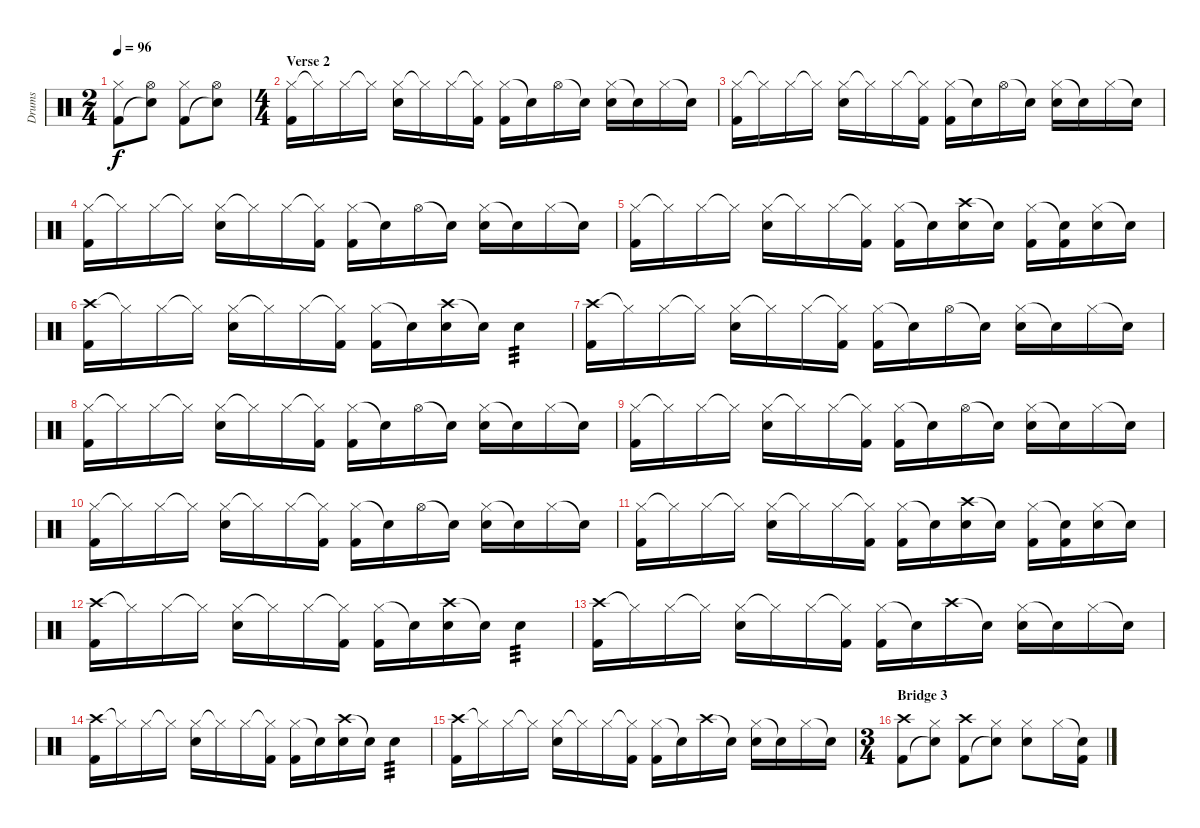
\track ("Drums" "Drums") {instrument percussion}
\staff {score}
\articulation defaults
\ts (2 4)
\tempo 96
\clef neutral
\ks c
("Hi-Hat (closed)" "Kick (hit) 2").8{dy f} ("Hi-Hat (open)" "Snare (hit)"{t}).8 ("Hi-Hat (closed)" "Kick (hit) 2").8 ("Hi-Hat (open)" "Snare (hit)"{t}).8 |
\ts (4 4)
\section ("" "Verse 2")
("Hi-Hat (closed)" "Kick (hit) 2").16 "Hi-Hat (closed)"{t}.16 "Hi-Hat (closed)".16 "Hi-Hat (closed)"{t}.16 ("Hi-Hat (closed)" "Electric Snare (hit)").16 "Hi-Hat (closed)"{t}.16 "Hi-Hat (closed)".16 ("Hi-Hat (closed)"{t} "Kick (hit) 2").16 ("Hi-Hat (closed)" "Kick (hit) 2").16 "Snare (hit)"{t}.16 "Hi-Hat (open)".16 "Snare (hit)"{t}.16 ("Hi-Hat (closed)" "Electric Snare (hit)").16 "Snare (hit)"{t}.16 "Hi-Hat (closed)".16 "Snare (hit)"{t}.16 |
("Hi-Hat (closed)" "Kick (hit) 2").16 "Hi-Hat (closed)"{t}.16 "Hi-Hat (closed)".16 "Hi-Hat (closed)"{t}.16 ("Hi-Hat (closed)" "Electric Snare (hit)").16 "Hi-Hat (closed)"{t}.16 "Hi-Hat (closed)".16 ("Hi-Hat (closed)"{t} "Kick (hit) 2").16 ("Hi-Hat (closed)" "Kick (hit) 2").16 "Snare (hit)"{t}.16 "Hi-Hat (open)".16 "Snare (hit)"{t}.16 ("Hi-Hat (closed)" "Electric Snare (hit)").16 "Snare (hit)"{t}.16 "Hi-Hat (closed)".16 "Snare (hit)"{t}.16 |
("Hi-Hat (closed)" "Kick (hit) 2").16 "Hi-Hat (closed)"{t}.16 "Hi-Hat (closed)".16 "Hi-Hat (closed)"{t}.16 ("Hi-Hat (closed)" "Electric Snare (hit)").16 "Hi-Hat (closed)"{t}.16 "Hi-Hat (closed)".16 ("Hi-Hat (closed)"{t} "Kick (hit) 2").16 ("Hi-Hat (closed)" "Kick (hit) 2").16 "Snare (hit)"{t}.16 "Hi-Hat (open)".16 "Snare (hit)"{t}.16 ("Hi-Hat (closed)" "Electric Snare (hit)").16 "Snare (hit)"{t}.16 "Hi-Hat (closed)".16 "Snare (hit)"{t}.16 |
("Hi-Hat (closed)" "Kick (hit) 2").16 "Hi-Hat (closed)"{t}.16 "Hi-Hat (closed)".16 "Hi-Hat (closed)"{t}.16 ("Hi-Hat (closed)" "Electric Snare (hit)").16 "Hi-Hat (closed)"{t}.16 "Hi-Hat (closed)".16 ("Hi-Hat (closed)"{t} "Kick (hit) 2").16 ("Hi-Hat (closed)" "Kick (hit) 2").16 "Snare (hit)"{t}.16 ("Crash high (hit)" "Electric Snare (hit)").16 "Snare (hit)"{t}.16 ("Hi-Hat (closed)" "Kick (hit) 2").16 ("Snare (hit)"{t} "Kick (hit) 2").16 ("Hi-Hat (closed)" "Electric Snare (hit)").16 "Snare (hit)"{t}.16 |
("Crash high (hit)" "Kick (hit) 2").16 "Hi-Hat (closed)"{t}.16 "Hi-Hat (closed)".16 "Hi-Hat (closed)"{t}.16 ("Hi-Hat (closed)" "Electric Snare (hit)").16 "Hi-Hat (closed)"{t}.16 "Hi-Hat (closed)".16 ("Hi-Hat (closed)"{t} "Kick (hit) 2").16 ("Hi-Hat (closed)" "Kick (hit) 2").16 "Snare (hit)"{t}.16 ("Crash high (hit)" "Electric Snare (hit)").16 "Snare (hit)"{t}.16 "Electric Snare (hit)".4{tp 3} |
("Crash high (hit)" "Kick (hit) 2").16 "Hi-Hat (closed)"{t}.16 "Hi-Hat (closed)".16 "Hi-Hat (closed)"{t}.16 ("Hi-Hat (closed)" "Electric Snare (hit)").16 "Hi-Hat (closed)"{t}.16 "Hi-Hat (closed)".16 ("Hi-Hat (closed)"{t} "Kick (hit) 2").16 ("Hi-Hat (closed)" "Kick (hit) 2").16 "Snare (hit)"{t}.16 "Hi-Hat (open)".16 "Snare (hit)"{t}.16 ("Hi-Hat (closed)" "Electric Snare (hit)").16 "Snare (hit)"{t}.16 "Hi-Hat (closed)".16 "Snare (hit)"{t}.16 |
("Hi-Hat (closed)" "Kick (hit) 2").16 "Hi-Hat (closed)"{t}.16 "Hi-Hat (closed)".16 "Hi-Hat (closed)"{t}.16 ("Hi-Hat (closed)" "Electric Snare (hit)").16 "Hi-Hat (closed)"{t}.16 "Hi-Hat (closed)".16 ("Hi-Hat (closed)"{t} "Kick (hit) 2").16 ("Hi-Hat (closed)" "Kick (hit) 2").16 "Snare (hit)"{t}.16 "Hi-Hat (open)".16 "Snare (hit)"{t}.16 ("Hi-Hat (closed)" "Electric Snare (hit)").16 "Snare (hit)"{t}.16 "Hi-Hat (closed)".16 "Snare (hit)"{t}.16 |
("Hi-Hat (closed)" "Kick (hit) 2").16 "Hi-Hat (closed)"{t}.16 "Hi-Hat (closed)".16 "Hi-Hat (closed)"{t}.16 ("Hi-Hat (closed)" "Electric Snare (hit)").16 "Hi-Hat (closed)"{t}.16 "Hi-Hat (closed)".16 ("Hi-Hat (closed)"{t} "Kick (hit) 2").16 ("Hi-Hat (closed)" "Kick (hit) 2").16 "Snare (hit)"{t}.16 "Hi-Hat (open)".16 "Snare (hit)"{t}.16 ("Hi-Hat (closed)" "Electric Snare (hit)").16 "Snare (hit)"{t}.16 "Hi-Hat (closed)".16 "Snare (hit)"{t}.16 |
("Hi-Hat (closed)" "Kick (hit) 2").16 "Hi-Hat (closed)"{t}.16 "Hi-Hat (closed)".16 "Hi-Hat (closed)"{t}.16 ("Hi-Hat (closed)" "Electric Snare (hit)").16 "Hi-Hat (closed)"{t}.16 "Hi-Hat (closed)".16 ("Hi-Hat (closed)"{t} "Kick (hit) 2").16 ("Hi-Hat (closed)" "Kick (hit) 2").16 "Snare (hit)"{t}.16 "Hi-Hat (open)".16 "Snare (hit)"{t}.16 ("Hi-Hat (closed)" "Electric Snare (hit)").16 "Snare (hit)"{t}.16 "Hi-Hat (closed)".16 "Snare (hit)"{t}.16 |
("Hi-Hat (closed)" "Kick (hit) 2").16 "Hi-Hat (closed)"{t}.16 "Hi-Hat (closed)".16 "Hi-Hat (closed)"{t}.16 ("Hi-Hat (closed)" "Electric Snare (hit)").16 "Hi-Hat (closed)"{t}.16 "Hi-Hat (closed)".16 ("Hi-Hat (closed)"{t} "Kick (hit) 2").16 ("Hi-Hat (closed)" "Kick (hit) 2").16 "Snare (hit)"{t}.16 ("Crash high (hit)" "Electric Snare (hit)").16 "Snare (hit)"{t}.16 ("Hi-Hat (closed)" "Kick (hit) 2").16 ("Snare (hit)"{t} "Kick (hit) 2").16 ("Hi-Hat (closed)" "Electric Snare (hit)").16 "Snare (hit)"{t}.16 |
("Crash high (hit)" "Kick (hit) 2").16 "Hi-Hat (closed)"{t}.16 "Hi-Hat (closed)".16 "Hi-Hat (closed)"{t}.16 ("Hi-Hat (closed)" "Electric Snare (hit)").16 "Hi-Hat (closed)"{t}.16 "Hi-Hat (closed)".16 ("Hi-Hat (closed)"{t} "Kick (hit) 2").16 ("Hi-Hat (closed)" "Kick (hit) 2").16 "Snare (hit)"{t}.16 ("Crash high (hit)" "Electric Snare (hit)").16 "Snare (hit)"{t}.16 "Electric Snare (hit)".4{tp 3} |
("Crash high (hit)" "Kick (hit) 2").16 "Hi-Hat (closed)"{t}.16 "Hi-Hat (closed)".16 "Hi-Hat (closed)"{t}.16 ("Hi-Hat (closed)" "Electric Snare (hit)").16 "Hi-Hat (closed)"{t}.16 "Hi-Hat (closed)".16 ("Hi-Hat (closed)"{t} "Kick (hit) 2").16 ("Hi-Hat (closed)" "Kick (hit) 2").16 "Snare (hit)"{t}.16 "Crash high (hit)".16 "Snare (hit)"{t}.16 ("Hi-Hat (closed)" "Electric Snare (hit)").16 "Snare (hit)"{t}.16 "Hi-Hat (closed)".16 "Snare (hit)"{t}.16 |
("Crash high (hit)" "Kick (hit) 2").16 "Hi-Hat (closed)"{t}.16 "Hi-Hat (closed)".16 "Hi-Hat (closed)"{t}.16 ("Hi-Hat (closed)" "Electric Snare (hit)").16 "Hi-Hat (closed)"{t}.16 "Hi-Hat (closed)".16 ("Hi-Hat (closed)"{t} "Kick (hit) 2").16 ("Hi-Hat (closed)" "Kick (hit) 2").16 "Snare (hit)"{t}.16 ("Crash high (hit)" "Electric Snare (hit)").16 "Snare (hit)"{t}.16 "Electric Snare (hit)".4{tp 3} |
("Crash high (hit)" "Kick (hit) 2").16 "Hi-Hat (closed)"{t}.16 "Hi-Hat (closed)".16 "Hi-Hat (closed)"{t}.16 ("Hi-Hat (closed)" "Electric Snare (hit)").16 "Hi-Hat (closed)"{t}.16 "Hi-Hat (closed)".16 ("Hi-Hat (closed)"{t} "Kick (hit) 2").16 ("Hi-Hat (closed)" "Kick (hit) 2").16 "Snare (hit)"{t}.16 "Crash high (hit)".16 "Snare (hit)"{t}.16 ("Hi-Hat (closed)" "Electric Snare (hit)").16 "Snare (hit)"{t}.16 "Hi-Hat (closed)".16 "Snare (hit)"{t}.16 |
\ts (3 4)
\section ("" "Bridge 3")
("Crash high (hit)" "Kick (hit) 2").8 ("Hi-Hat (closed)" "Snare (hit)"{t}).8 ("Crash high (hit)" "Kick (hit) 2").8 ("Hi-Hat (closed)" "Snare (hit)"{t}).8 ("Hi-Hat (closed)" "Electric Snare (hit)").8 "Hi-Hat (closed)".16 ("Snare (hit)"{t} "Kick (hit) 2").16
